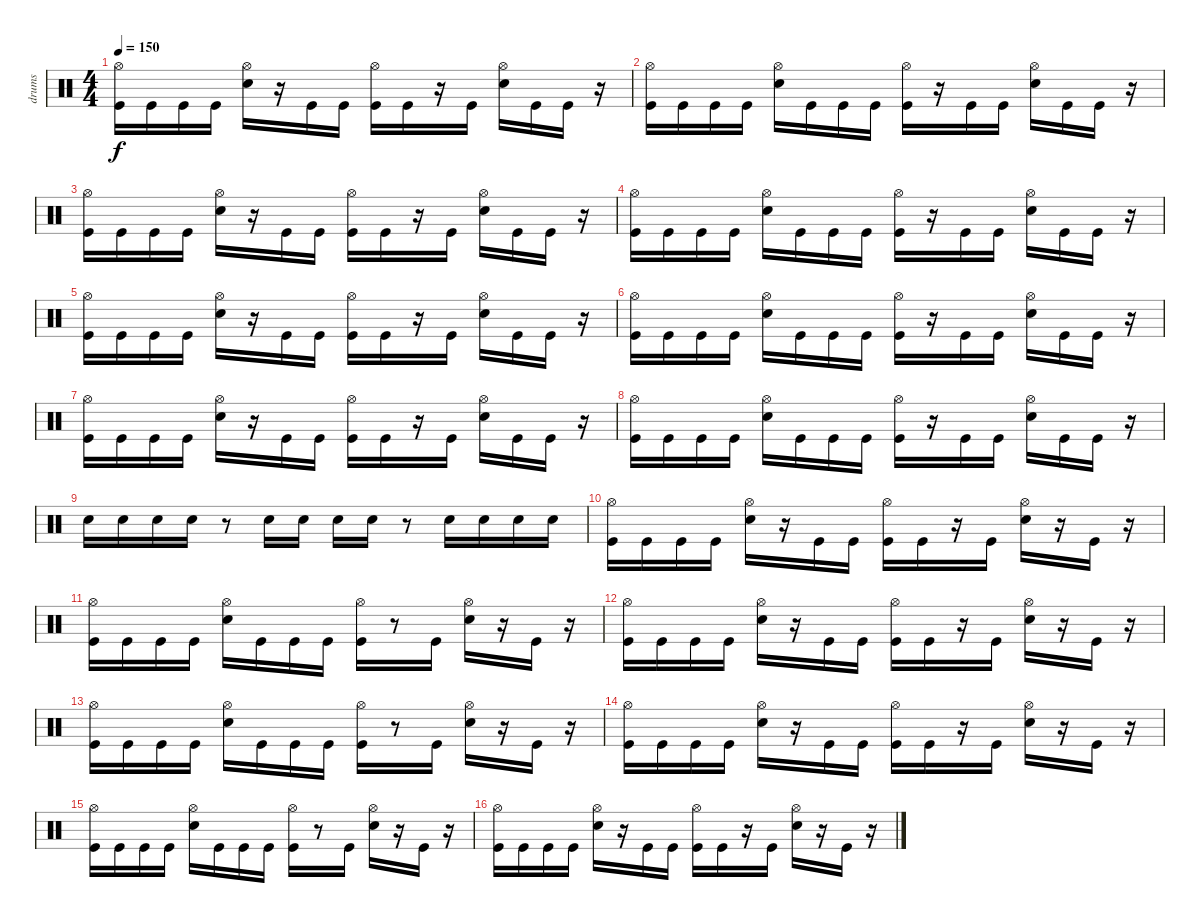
\track ("drums" "drums") {instrument percussion}
\staff {score}
\articulation defaults
\ts (4 4)
\tempo 150
\clef neutral
\ks c
("Hi-Hat (open)" "Kick (hit)").16{dy f} "Kick (hit)".16 "Kick (hit)".16 "Kick (hit)".16 ("Hi-Hat (open)" "Electric Snare (hit)").16 r.16 "Kick (hit)".16 "Kick (hit)".16 ("Hi-Hat (open)" "Kick (hit)").16 "Kick (hit)".16 r.16 "Kick (hit)".16 ("Hi-Hat (open)" "Electric Snare (hit)").16 "Kick (hit)".16 "Kick (hit)".16 r.16 |
("Hi-Hat (open)" "Kick (hit)").16 "Kick (hit)".16 "Kick (hit)".16 "Kick (hit)".16 ("Electric Snare (hit)" "Hi-Hat (open)").16 "Kick (hit)".16 "Kick (hit)".16 "Kick (hit)".16 ("Hi-Hat (open)" "Kick (hit)").16 r.16 "Kick (hit)".16 "Kick (hit)".16 ("Hi-Hat (open)" "Electric Snare (hit)").16 "Kick (hit)".16 "Kick (hit)".16 r.16 |
("Hi-Hat (open)" "Kick (hit)").16 "Kick (hit)".16 "Kick (hit)".16 "Kick (hit)".16 ("Hi-Hat (open)" "Electric Snare (hit)").16 r.16 "Kick (hit)".16 "Kick (hit)".16 ("Hi-Hat (open)" "Kick (hit)").16 "Kick (hit)".16 r.16 "Kick (hit)".16 ("Hi-Hat (open)" "Electric Snare (hit)").16 "Kick (hit)".16 "Kick (hit)".16 r.16 |
("Hi-Hat (open)" "Kick (hit)").16 "Kick (hit)".16 "Kick (hit)".16 "Kick (hit)".16 ("Electric Snare (hit)" "Hi-Hat (open)").16 "Kick (hit)".16 "Kick (hit)".16 "Kick (hit)".16 ("Hi-Hat (open)" "Kick (hit)").16 r.16 "Kick (hit)".16 "Kick (hit)".16 ("Hi-Hat (open)" "Electric Snare (hit)").16 "Kick (hit)".16 "Kick (hit)".16 r.16 |
("Hi-Hat (open)" "Kick (hit)").16 "Kick (hit)".16 "Kick (hit)".16 "Kick (hit)".16 ("Hi-Hat (open)" "Electric Snare (hit)").16 r.16 "Kick (hit)".16 "Kick (hit)".16 ("Hi-Hat (open)" "Kick (hit)").16 "Kick (hit)".16 r.16 "Kick (hit)".16 ("Hi-Hat (open)" "Electric Snare (hit)").16 "Kick (hit)".16 "Kick (hit)".16 r.16 |
("Hi-Hat (open)" "Kick (hit)").16 "Kick (hit)".16 "Kick (hit)".16 "Kick (hit)".16 ("Electric Snare (hit)" "Hi-Hat (open)").16 "Kick (hit)".16 "Kick (hit)".16 "Kick (hit)".16 ("Hi-Hat (open)" "Kick (hit)").16 r.16 "Kick (hit)".16 "Kick (hit)".16 ("Hi-Hat (open)" "Electric Snare (hit)").16 "Kick (hit)".16 "Kick (hit)".16 r.16 |
("Hi-Hat (open)" "Kick (hit)").16 "Kick (hit)".16 "Kick (hit)".16 "Kick (hit)".16 ("Hi-Hat (open)" "Electric Snare (hit)").16 r.16 "Kick (hit)".16 "Kick (hit)".16 ("Hi-Hat (open)" "Kick (hit)").16 "Kick (hit)".16 r.16 "Kick (hit)".16 ("Hi-Hat (open)" "Electric Snare (hit)").16 "Kick (hit)".16 "Kick (hit)".16 r.16 |
("Hi-Hat (open)" "Kick (hit)").16 "Kick (hit)".16 "Kick (hit)".16 "Kick (hit)".16 ("Electric Snare (hit)" "Hi-Hat (open)").16 "Kick (hit)".16 "Kick (hit)".16 "Kick (hit)".16 ("Hi-Hat (open)" "Kick (hit)").16 r.16 "Kick (hit)".16 "Kick (hit)".16 ("Hi-Hat (open)" "Electric Snare (hit)").16 "Kick (hit)".16 "Kick (hit)".16 r.16 |
"Electric Snare (hit)".16 "Electric Snare (hit)".16 "Electric Snare (hit)".16 "Electric Snare (hit)".16 r.8 "Electric Snare (hit)".16 "Electric Snare (hit)".16 "Electric Snare (hit)".16 "Electric Snare (hit)".16 r.8 "Electric Snare (hit)".16 "Electric Snare (hit)".16 "Electric Snare (hit)".16 "Electric Snare (hit)".16 |
("Hi-Hat (open)" "Kick (hit)").16 "Kick (hit)".16 "Kick (hit)".16 "Kick (hit)".16 ("Hi-Hat (open)" "Electric Snare (hit)").16 r.16 "Kick (hit)".16 "Kick (hit)".16 ("Hi-Hat (open)" "Kick (hit)").16 "Kick (hit)".16 r.16 "Kick (hit)".16 ("Hi-Hat (open)" "Electric Snare (hit)").16 r.16 "Kick (hit)".16 r.16 |
("Hi-Hat (open)" "Kick (hit)").16 "Kick (hit)".16 "Kick (hit)".16 "Kick (hit)".16 ("Electric Snare (hit)" "Hi-Hat (open)").16 "Kick (hit)".16 "Kick (hit)".16 "Kick (hit)".16 ("Hi-Hat (open)" "Kick (hit)").16 r.8 "Kick (hit)".16 ("Hi-Hat (open)" "Electric Snare (hit)").16 r.16 "Kick (hit)".16 r.16 |
("Hi-Hat (open)" "Kick (hit)").16 "Kick (hit)".16 "Kick (hit)".16 "Kick (hit)".16 ("Hi-Hat (open)" "Electric Snare (hit)").16 r.16 "Kick (hit)".16 "Kick (hit)".16 ("Hi-Hat (open)" "Kick (hit)").16 "Kick (hit)".16 r.16 "Kick (hit)".16 ("Hi-Hat (open)" "Electric Snare (hit)").16 r.16 "Kick (hit)".16 r.16 |
("Hi-Hat (open)" "Kick (hit)").16 "Kick (hit)".16 "Kick (hit)".16 "Kick (hit)".16 ("Electric Snare (hit)" "Hi-Hat (open)").16 "Kick (hit)".16 "Kick (hit)".16 "Kick (hit)".16 ("Hi-Hat (open)" "Kick (hit)").16 r.8 "Kick (hit)".16 ("Hi-Hat (open)" "Electric Snare (hit)").16 r.16 "Kick (hit)".16 r.16 |
("Hi-Hat (open)" "Kick (hit)").16 "Kick (hit)".16 "Kick (hit)".16 "Kick (hit)".16 ("Hi-Hat (open)" "Electric Snare (hit)").16 r.16 "Kick (hit)".16 "Kick (hit)".16 ("Hi-Hat (open)" "Kick (hit)").16 "Kick (hit)".16 r.16 "Kick (hit)".16 ("Hi-Hat (open)" "Electric Snare (hit)").16 r.16 "Kick (hit)".16 r.16 |
("Hi-Hat (open)" "Kick (hit)").16 "Kick (hit)".16 "Kick (hit)".16 "Kick (hit)".16 ("Electric Snare (hit)" "Hi-Hat (open)").16 "Kick (hit)".16 "Kick (hit)".16 "Kick (hit)".16 ("Hi-Hat (open)" "Kick (hit)").16 r.8 "Kick (hit)".16 ("Hi-Hat (open)" "Electric Snare (hit)").16 r.16 "Kick (hit)".16 r.16 |
("Hi-Hat (open)" "Kick (hit)").16 "Kick (hit)".16 "Kick (hit)".16 "Kick (hit)".16 ("Hi-Hat (open)" "Electric Snare (hit)").16 r.16 "Kick (hit)".16 "Kick (hit)".16 ("Hi-Hat (open)" "Kick (hit)").16 "Kick (hit)".16 r.16 "Kick (hit)".16 ("Hi-Hat (open)" "Electric Snare (hit)").16 r.16 "Kick (hit)".16 r.16
